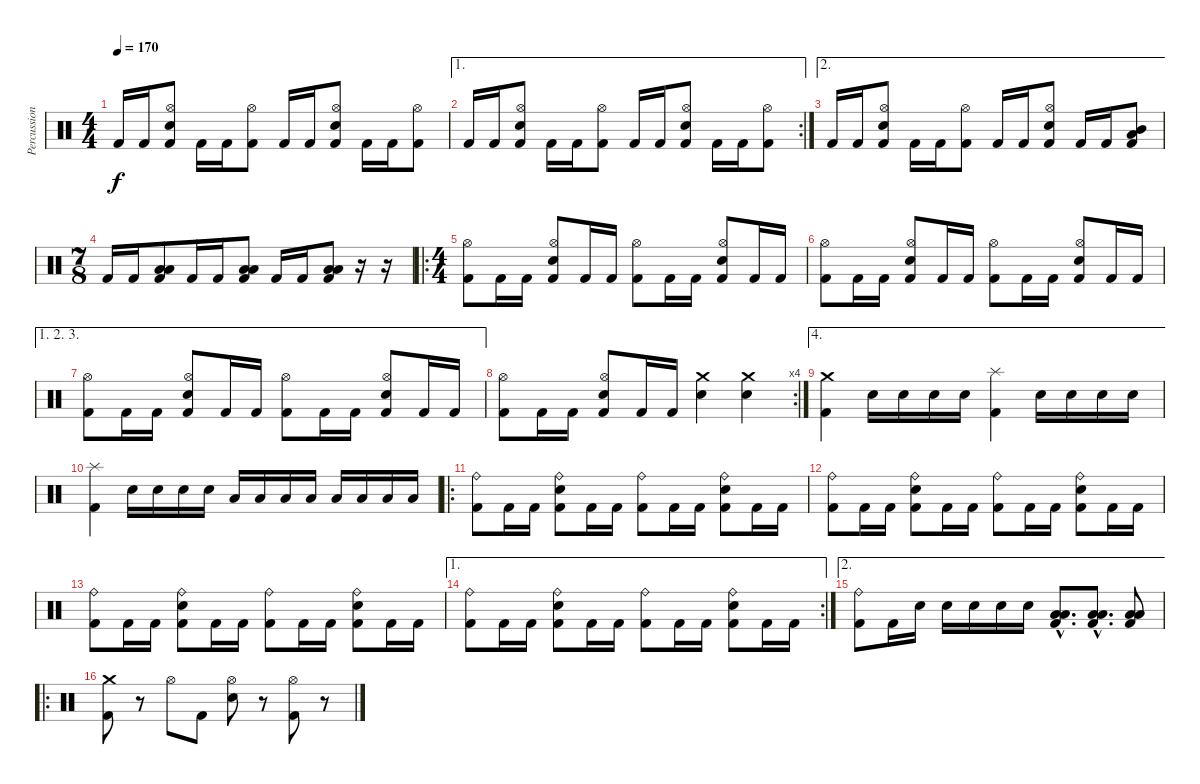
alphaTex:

\track ("Percussions" "Percussion") {instrument percussion}
\staff {score}
\articulation defaults
\ts (4 4)
\tempo 170
\clef neutral
\ks c "Kick (hit) 2".16{dy f} "Kick (hit) 2".16
("Kick (hit) 2" "Hi-Hat (open)" "Snare (hit) 2").8 "Kick (hit) 2".16 "Kick (hit) 2".16 ("Kick (hit) 2" "Hi-Hat (open)").8 "Kick (hit) 2".16 "Kick (hit) 2".16 ("Kick (hit) 2" "Hi-Hat (open)" "Snare (hit) 2").8 "Kick (hit) 2".16 "Kick (hit) 2".16 ("Kick (hit) 2" "Hi-Hat (open)").8 |
\ae 1
\rc 2 "Kick (hit) 2".16 "Kick (hit) 2".16
("Kick (hit) 2" "Hi-Hat (open)" "Snare (hit) 2").8 "Kick (hit) 2".16 "Kick (hit) 2".16 ("Kick (hit) 2" "Hi-Hat (open)").8 "Kick (hit) 2".16 "Kick (hit) 2".16 ("Kick (hit) 2" "Hi-Hat (open)" "Snare (hit) 2").8 "Kick (hit) 2".16 "Kick (hit) 2".16 ("Kick (hit) 2" "Hi-Hat (open)").8 |
\ae 2 "Kick (hit) 2".16 "Kick (hit) 2".16
("Kick (hit) 2" "Hi-Hat (open)" "Snare (hit) 2").8 "Kick (hit) 2".16 "Kick (hit) 2".16 ("Kick (hit) 2" "Hi-Hat (open)").8 "Kick (hit) 2".16 "Kick (hit) 2".16 ("Kick (hit) 2" "Hi-Hat (open)" "Snare (hit) 2").8 "Kick (hit) 2".16 "Kick (hit) 2".16 ("Kick (hit) 2" "Mid Tom (hit)" "Low Tom (hit)").8 |
\ts (7 8)
"Kick (hit) 2".16 "Kick (hit) 2".16 ("Kick (hit) 2" "Low Tom (hit)" "Low Floor Tom (hit)").8 "Kick (hit) 2".16 "Kick (hit) 2".16 ("Kick (hit) 2" "Low Floor Tom (hit)" "Low Floor Tom (hit)").8 "Kick (hit) 2".16 "Kick (hit) 2".16 ("Kick (hit) 2" "Low Floor Tom (hit)" "Low Floor Tom (hit)").8 r.16 r.16 |
\ro
\ts (4 4)
("Kick (hit) 2" "Hi-Hat (open)").8 "Kick (hit) 2".16 "Kick (hit) 2".16 ("Kick (hit) 2" "Snare (hit) 2" "Hi-Hat (open)").8 "Kick (hit) 2".16 "Kick (hit) 2".16 ("Kick (hit) 2" "Hi-Hat (open)").8 "Kick (hit) 2".16 "Kick (hit) 2".16 ("Kick (hit) 2" "Snare (hit) 2" "Hi-Hat (open)").8 "Kick (hit) 2".16 "Kick (hit) 2".16 |
("Kick (hit) 2" "Hi-Hat (open)").8 "Kick (hit) 2".16 "Kick (hit) 2".16 ("Kick (hit) 2" "Snare (hit) 2" "Hi-Hat (open)").8 "Kick (hit) 2".16 "Kick (hit) 2".16 ("Kick (hit) 2" "Hi-Hat (open)").8 "Kick (hit) 2".16 "Kick (hit) 2".16 ("Kick (hit) 2" "Snare (hit) 2" "Hi-Hat (open)").8 "Kick (hit) 2".16 "Kick (hit) 2".16 |
\ae (1 2 3)
("Kick (hit) 2" "Hi-Hat (open)").8 "Kick (hit) 2".16 "Kick (hit) 2".16 ("Kick (hit) 2" "Snare (hit) 2" "Hi-Hat (open)").8 "Kick (hit) 2".16 "Kick (hit) 2".16 ("Kick (hit) 2" "Hi-Hat (open)").8 "Kick (hit) 2".16 "Kick (hit) 2".16 ("Kick (hit) 2" "Snare (hit) 2" "Hi-Hat (open)").8 "Kick (hit) 2".16 "Kick (hit) 2".16 |
\rc 4
("Kick (hit) 2" "Hi-Hat (open)").8 "Kick (hit) 2".16 "Kick (hit) 2".16 ("Kick (hit) 2" "Snare (hit) 2" "Hi-Hat (open)").8 "Kick (hit) 2".16 "Kick (hit) 2".16 ("Snare (hit) 2" "Crash medium (hit)").4 ("Snare (hit) 2" "Crash medium (hit)").4 |
\ae 4
("Kick (hit) 2" "Crash medium (hit)").4 "Snare (hit) 2".16 "Snare (hit) 2".16 "Snare (hit) 2".16 "Snare (hit) 2".16 ("Kick (hit) 2" "Splash (hit)").4 "Snare (hit) 2".16 "Snare (hit) 2".16 "Snare (hit) 2".16 "Snare (hit) 2".16 |
("Kick (hit) 2" "Splash (hit)").4 "Snare (hit) 2".16 "Snare (hit) 2".16 "Snare (hit) 2".16 "Snare (hit) 2".16 "Low Tom (hit)".16 "Low Tom (hit)".16 "Low Tom (hit)".16 "Low Tom (hit)".16 "Low Floor Tom (hit)".16 "Low Floor Tom (hit)".16 "Low Floor Tom (hit)".16 "Low Floor Tom (hit)".16 |
\ro
("Kick (hit) 2" "Ride (bell)").8 "Kick (hit) 2".16 "Kick (hit) 2".16 ("Kick (hit) 2" "Snare (hit) 2" "Ride (bell)").8 "Kick (hit) 2".16 "Kick (hit) 2".16 ("Kick (hit) 2" "Ride (bell)").8 "Kick (hit) 2".16 "Kick (hit) 2".16 ("Kick (hit) 2" "Snare (hit) 2" "Ride (bell)").8 "Kick (hit) 2".16 "Kick (hit) 2".16 |
("Kick (hit) 2" "Ride (bell)").8 "Kick (hit) 2".16 "Kick (hit) 2".16 ("Kick (hit) 2" "Snare (hit) 2" "Ride (bell)").8 "Kick (hit) 2".16 "Kick (hit) 2".16 ("Kick (hit) 2" "Ride (bell)").8 "Kick (hit) 2".16 "Kick (hit) 2".16 ("Kick (hit) 2" "Snare (hit) 2" "Ride (bell)").8 "Kick (hit) 2".16 "Kick (hit) 2".16 |
("Kick (hit) 2" "Ride (bell)").8 "Kick (hit) 2".16 "Kick (hit) 2".16 ("Kick (hit) 2" "Snare (hit) 2" "Ride (bell)").8 "Kick (hit) 2".16 "Kick (hit) 2".16 ("Kick (hit) 2" "Ride (bell)").8 "Kick (hit) 2".16 "Kick (hit) 2".16 ("Kick (hit) 2" "Snare (hit) 2" "Ride (bell)").8 "Kick (hit) 2".16 "Kick (hit) 2".16 |
\ae 1
\rc 2
("Kick (hit) 2" "Ride (bell)").8 "Kick (hit) 2".16 "Kick (hit) 2".16 ("Kick (hit) 2" "Snare (hit) 2" "Ride (bell)").8 "Kick (hit) 2".16 "Kick (hit) 2".16 ("Kick (hit) 2" "Ride (bell)").8 "Kick (hit) 2".16 "Kick (hit) 2".16 ("Kick (hit) 2" "Snare (hit) 2" "Ride (bell)").8 "Kick (hit) 2".16 "Kick (hit) 2".16 |
\ae 2
("Kick (hit) 2" "Ride (bell)").8 "Kick (hit) 2".16 "Snare (hit) 2".16 "Snare (hit) 2".16 "Snare (hit) 2".16 "Snare (hit) 2".16 "Snare (hit) 2".16 ("Kick (hit) 2"{hac} "Low Floor Tom (hit)"{hac} "Low Tom (hit)"{hac}).8{d} ("Kick (hit) 2"{hac} "Low Floor Tom (hit)"{hac} "Low Tom (hit)"{hac}).8{d} ("Kick (hit) 2" "Low Floor Tom (hit)" "Low Tom (hit)").8 |
\ro
("Kick (hit) 2" "Crash medium (hit)").8 r.8 "Hi-Hat (open)".8 "Kick (hit) 2".8 ("Snare (hit) 2" "Hi-Hat (open)").8 r.8 ("Kick (hit) 2" "Hi-Hat (open)").8 r.8
